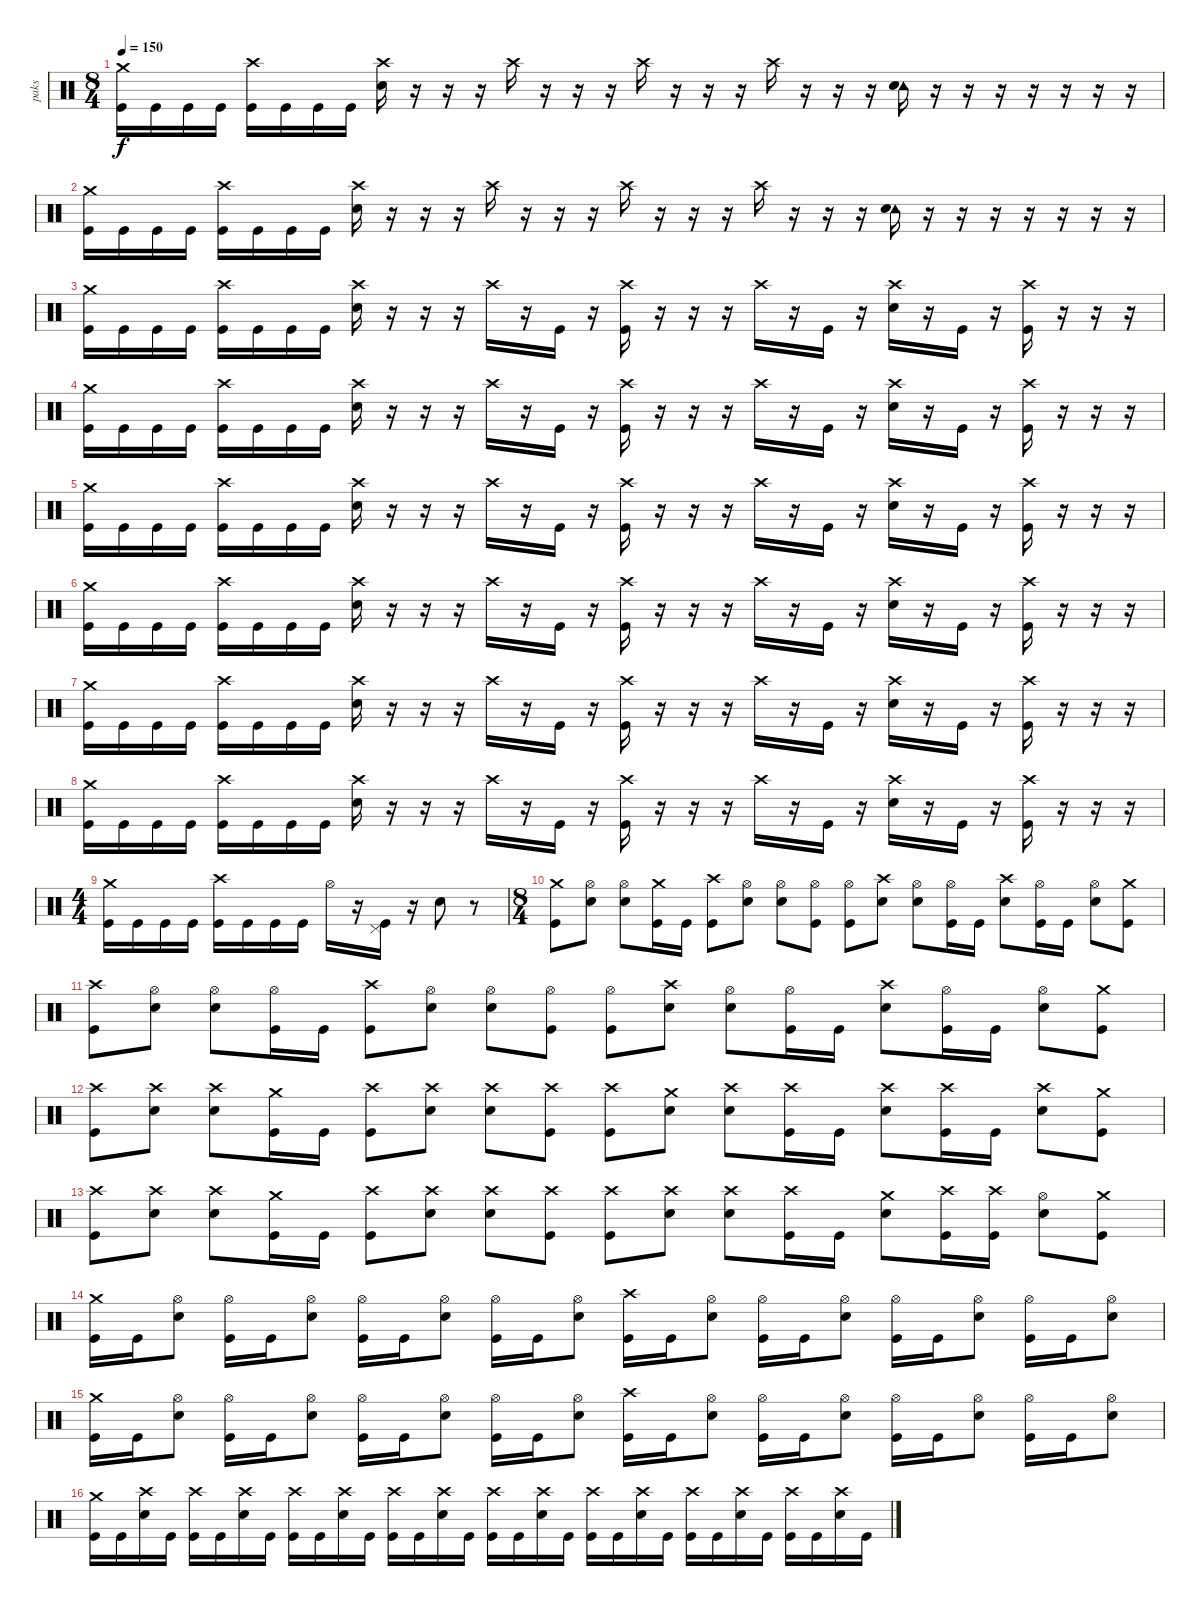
\track ("paks" "paks") {instrument percussion}
\staff {score}
\articulation defaults
\ts (8 4)
\tempo 150
\clef neutral
\ks c
("Crash medium (hit)" "Kick (hit)").16{dy f} "Kick (hit)".16 "Kick (hit)".16 "Kick (hit)".16 ("Crash high (hit)" "Kick (hit)").16 "Kick (hit)".16 "Kick (hit)".16 "Kick (hit)".16 ("Crash high (hit)" "Electric Snare (hit)").16 r.16 r.16 r.16 "Crash high (hit)".16 r.16 r.16 r.16 "Crash high (hit)".16 r.16 r.16 r.16 "Crash high (hit)".16 r.16 r.16 r.16 ("Tambourine (hit)" "Electric Snare (hit)").16 r.16 r.16 r.16 r.16 r.16 r.16 r.16 |
("Crash medium (hit)" "Kick (hit)").16 "Kick (hit)".16 "Kick (hit)".16 "Kick (hit)".16 ("Crash high (hit)" "Kick (hit)").16 "Kick (hit)".16 "Kick (hit)".16 "Kick (hit)".16 ("Crash high (hit)" "Electric Snare (hit)").16 r.16 r.16 r.16 "Crash high (hit)".16 r.16 r.16 r.16 "Crash high (hit)".16 r.16 r.16 r.16 "Crash high (hit)".16 r.16 r.16 r.16 ("Tambourine (hit)" "Electric Snare (hit)").16 r.16 r.16 r.16 r.16 r.16 r.16 r.16 |
("Crash medium (hit)" "Kick (hit)").16 "Kick (hit)".16 "Kick (hit)".16 "Kick (hit)".16 ("Crash high (hit)" "Kick (hit)").16 "Kick (hit)".16 "Kick (hit)".16 "Kick (hit)".16 ("Crash high (hit)" "Electric Snare (hit)").16 r.16 r.16 r.16 "Crash high (hit)".16 r.16 "Kick (hit)".16 r.16 ("Crash high (hit)" "Kick (hit)").16 r.16 r.16 r.16 "Crash high (hit)".16 r.16 "Kick (hit)".16 r.16 ("Crash high (hit)" "Electric Snare (hit)").16 r.16 "Kick (hit)".16 r.16 ("Crash high (hit)" "Kick (hit)").16 r.16 r.16 r.16 |
("Crash medium (hit)" "Kick (hit)").16 "Kick (hit)".16 "Kick (hit)".16 "Kick (hit)".16 ("Crash high (hit)" "Kick (hit)").16 "Kick (hit)".16 "Kick (hit)".16 "Kick (hit)".16 ("Crash high (hit)" "Electric Snare (hit)").16 r.16 r.16 r.16 "Crash high (hit)".16 r.16 "Kick (hit)".16 r.16 ("Crash high (hit)" "Kick (hit)").16 r.16 r.16 r.16 "Crash high (hit)".16 r.16 "Kick (hit)".16 r.16 ("Crash high (hit)" "Electric Snare (hit)").16 r.16 "Kick (hit)".16 r.16 ("Crash high (hit)" "Kick (hit)").16 r.16 r.16 r.16 |
("Crash medium (hit)" "Kick (hit)").16 "Kick (hit)".16 "Kick (hit)".16 "Kick (hit)".16 ("Crash high (hit)" "Kick (hit)").16 "Kick (hit)".16 "Kick (hit)".16 "Kick (hit)".16 ("Crash high (hit)" "Electric Snare (hit)").16 r.16 r.16 r.16 "Crash high (hit)".16 r.16 "Kick (hit)".16 r.16 ("Crash high (hit)" "Kick (hit)").16 r.16 r.16 r.16 "Crash high (hit)".16 r.16 "Kick (hit)".16 r.16 ("Crash high (hit)" "Electric Snare (hit)").16 r.16 "Kick (hit)".16 r.16 ("Crash high (hit)" "Kick (hit)").16 r.16 r.16 r.16 |
("Crash medium (hit)" "Kick (hit)").16 "Kick (hit)".16 "Kick (hit)".16 "Kick (hit)".16 ("Crash high (hit)" "Kick (hit)").16 "Kick (hit)".16 "Kick (hit)".16 "Kick (hit)".16 ("Crash high (hit)" "Electric Snare (hit)").16 r.16 r.16 r.16 "Crash high (hit)".16 r.16 "Kick (hit)".16 r.16 ("Crash high (hit)" "Kick (hit)").16 r.16 r.16 r.16 "Crash high (hit)".16 r.16 "Kick (hit)".16 r.16 ("Crash high (hit)" "Electric Snare (hit)").16 r.16 "Kick (hit)".16 r.16 ("Crash high (hit)" "Kick (hit)").16 r.16 r.16 r.16 |
("Crash medium (hit)" "Kick (hit)").16 "Kick (hit)".16 "Kick (hit)".16 "Kick (hit)".16 ("Crash high (hit)" "Kick (hit)").16 "Kick (hit)".16 "Kick (hit)".16 "Kick (hit)".16 ("Crash high (hit)" "Electric Snare (hit)").16 r.16 r.16 r.16 "Crash high (hit)".16 r.16 "Kick (hit)".16 r.16 ("Crash high (hit)" "Kick (hit)").16 r.16 r.16 r.16 "Crash high (hit)".16 r.16 "Kick (hit)".16 r.16 ("Crash high (hit)" "Electric Snare (hit)").16 r.16 "Kick (hit)".16 r.16 ("Crash high (hit)" "Kick (hit)").16 r.16 r.16 r.16 |
("Crash medium (hit)" "Kick (hit)").16 "Kick (hit)".16 "Kick (hit)".16 "Kick (hit)".16 ("Crash high (hit)" "Kick (hit)").16 "Kick (hit)".16 "Kick (hit)".16 "Kick (hit)".16 ("Crash high (hit)" "Electric Snare (hit)").16 r.16 r.16 r.16 "Crash high (hit)".16 r.16 "Kick (hit)".16 r.16 ("Crash high (hit)" "Kick (hit)").16 r.16 r.16 r.16 "Crash high (hit)".16 r.16 "Kick (hit)".16 r.16 ("Crash high (hit)" "Electric Snare (hit)").16 r.16 "Kick (hit)".16 r.16 ("Crash high (hit)" "Kick (hit)").16 r.16 r.16 r.16 |
\ts (4 4)
("Crash medium (hit)" "Kick (hit)").16 "Kick (hit)".16 "Kick (hit)".16 "Kick (hit)".16 ("Crash high (hit)" "Kick (hit)").16 "Kick (hit)".16 "Kick (hit)".16 "Kick (hit)".16 "Hi-Hat (open)".16 r.16 ("Pedal Hi-Hat (hit)" "Kick (hit)").16 r.16 "Electric Snare (hit)".8 r.8 |
\ts (8 4)
("Crash medium (hit)" "Kick (hit)").8 ("Hi-Hat (open)" "Electric Snare (hit)").8 ("Hi-Hat (open)" "Electric Snare (hit)").8 ("Crash medium (hit)" "Kick (hit)").16 "Kick (hit)".16 ("Crash high (hit)" "Kick (hit)").8 ("Hi-Hat (open)" "Electric Snare (hit)").8 ("Hi-Hat (open)" "Electric Snare (hit)").8 ("Hi-Hat (open)" "Kick (hit)").8 ("Hi-Hat (open)" "Kick (hit)").8 ("Crash high (hit)" "Electric Snare (hit)").8 ("Hi-Hat (open)" "Electric Snare (hit)").8 ("Hi-Hat (open)" "Kick (hit)").16 "Kick (hit)".16 ("Crash high (hit)" "Electric Snare (hit)").8 ("Hi-Hat (open)" "Kick (hit)").16 "Kick (hit)".16 ("Hi-Hat (open)" "Electric Snare (hit)").8 ("Crash medium (hit)" "Kick (hit)").8 |
("Crash high (hit)" "Kick (hit)").8 ("Hi-Hat (open)" "Electric Snare (hit)").8 ("Hi-Hat (open)" "Electric Snare (hit)").8 ("Hi-Hat (open)" "Kick (hit)").16 "Kick (hit)".16 ("Crash high (hit)" "Kick (hit)").8 ("Hi-Hat (open)" "Electric Snare (hit)").8 ("Hi-Hat (open)" "Electric Snare (hit)").8 ("Hi-Hat (open)" "Kick (hit)").8 ("Hi-Hat (open)" "Kick (hit)").8 ("Crash high (hit)" "Electric Snare (hit)").8 ("Hi-Hat (open)" "Electric Snare (hit)").8 ("Hi-Hat (open)" "Kick (hit)").16 "Kick (hit)".16 ("Crash high (hit)" "Electric Snare (hit)").8 ("Hi-Hat (open)" "Kick (hit)").16 "Kick (hit)".16 ("Hi-Hat (open)" "Electric Snare (hit)").8 ("Crash medium (hit)" "Kick (hit)").8 |
("Crash high (hit)" "Kick (hit)").8 ("Crash high (hit)" "Electric Snare (hit)").8 ("Crash high (hit)" "Electric Snare (hit)").8 ("Crash medium (hit)" "Kick (hit)").16 "Kick (hit)".16 ("Crash high (hit)" "Kick (hit)").8 ("Crash high (hit)" "Electric Snare (hit)").8 ("Crash high (hit)" "Electric Snare (hit)").8 ("Crash high (hit)" "Kick (hit)").8 ("Crash high (hit)" "Kick (hit)").8 ("Crash medium (hit)" "Electric Snare (hit)").8 ("Crash high (hit)" "Electric Snare (hit)").8 ("Crash high (hit)" "Kick (hit)").16 "Kick (hit)".16 ("Crash high (hit)" "Electric Snare (hit)").8 ("Crash high (hit)" "Kick (hit)").16 "Kick (hit)".16 ("Crash high (hit)" "Electric Snare (hit)").8 ("Crash medium (hit)" "Kick (hit)").8 |
("Crash high (hit)" "Kick (hit)").8 ("Crash high (hit)" "Electric Snare (hit)").8 ("Crash high (hit)" "Electric Snare (hit)").8 ("Crash medium (hit)" "Kick (hit)").16 "Kick (hit)".16 ("Crash high (hit)" "Kick (hit)").8 ("Crash high (hit)" "Electric Snare (hit)").8 ("Crash high (hit)" "Electric Snare (hit)").8 ("Crash high (hit)" "Kick (hit)").8 ("Crash high (hit)" "Kick (hit)").8 ("Crash high (hit)" "Electric Snare (hit)").8 ("Crash high (hit)" "Electric Snare (hit)").8 ("Crash high (hit)" "Kick (hit)").16 "Kick (hit)".16 ("Crash medium (hit)" "Electric Snare (hit)").8 ("Crash high (hit)" "Kick (hit)").16 ("Crash high (hit)" "Kick (hit)").16 ("Hi-Hat (open)" "Electric Snare (hit)").8 ("Crash medium (hit)" "Kick (hit)").8 |
("Crash medium (hit)" "Kick (hit)").16 "Kick (hit)".16 ("Hi-Hat (open)" "Electric Snare (hit)").8 ("Hi-Hat (open)" "Kick (hit)").16 "Kick (hit)".16 ("Hi-Hat (open)" "Electric Snare (hit)").8 ("Hi-Hat (open)" "Kick (hit)").16 "Kick (hit)".16 ("Hi-Hat (open)" "Electric Snare (hit)").8 ("Hi-Hat (open)" "Kick (hit)").16 "Kick (hit)".16 ("Hi-Hat (open)" "Electric Snare (hit)").8 ("Crash high (hit)" "Kick (hit)").16 "Kick (hit)".16 ("Hi-Hat (open)" "Electric Snare (hit)").8 ("Hi-Hat (open)" "Kick (hit)").16 "Kick (hit)".16 ("Hi-Hat (open)" "Electric Snare (hit)").8 ("Hi-Hat (open)" "Kick (hit)").16 "Kick (hit)".16 ("Hi-Hat (open)" "Electric Snare (hit)").8 ("Hi-Hat (open)" "Kick (hit)").16 "Kick (hit)".16 ("Hi-Hat (open)" "Electric Snare (hit)").8 |
("Crash medium (hit)" "Kick (hit)").16 "Kick (hit)".16 ("Hi-Hat (open)" "Electric Snare (hit)").8 ("Hi-Hat (open)" "Kick (hit)").16 "Kick (hit)".16 ("Hi-Hat (open)" "Electric Snare (hit)").8 ("Hi-Hat (open)" "Kick (hit)").16 "Kick (hit)".16 ("Hi-Hat (open)" "Electric Snare (hit)").8 ("Hi-Hat (open)" "Kick (hit)").16 "Kick (hit)".16 ("Hi-Hat (open)" "Electric Snare (hit)").8 ("Crash high (hit)" "Kick (hit)").16 "Kick (hit)".16 ("Hi-Hat (open)" "Electric Snare (hit)").8 ("Hi-Hat (open)" "Kick (hit)").16 "Kick (hit)".16 ("Hi-Hat (open)" "Electric Snare (hit)").8 ("Hi-Hat (open)" "Kick (hit)").16 "Kick (hit)".16 ("Hi-Hat (open)" "Electric Snare (hit)").8 ("Hi-Hat (open)" "Kick (hit)").16 "Kick (hit)".16 ("Hi-Hat (open)" "Electric Snare (hit)").8 |
("Crash medium (hit)" "Kick (hit)").16 "Kick (hit)".16 ("Crash high (hit)" "Electric Snare (hit)").16 "Kick (hit)".16 ("Crash high (hit)" "Kick (hit)").16 "Kick (hit)".16 ("Crash high (hit)" "Electric Snare (hit)").16 "Kick (hit)".16 ("Crash high (hit)" "Kick (hit)").16 "Kick (hit)".16 ("Crash high (hit)" "Electric Snare (hit)").16 "Kick (hit)".16 ("Crash high (hit)" "Kick (hit)").16 "Kick (hit)".16 ("Crash high (hit)" "Electric Snare (hit)").16 "Kick (hit)".16 ("Crash high (hit)" "Kick (hit)").16 "Kick (hit)".16 ("Crash high (hit)" "Electric Snare (hit)").16 "Kick (hit)".16 ("Crash high (hit)" "Kick (hit)").16 "Kick (hit)".16 ("Crash high (hit)" "Electric Snare (hit)").16 "Kick (hit)".16 ("Crash high (hit)" "Kick (hit)").16 "Kick (hit)".16 ("Crash high (hit)" "Electric Snare (hit)").16 "Kick (hit)".16 ("Crash high (hit)" "Kick (hit)").16 "Kick (hit)".16 ("Crash high (hit)" "Electric Snare (hit)").16 "Kick (hit)".16
